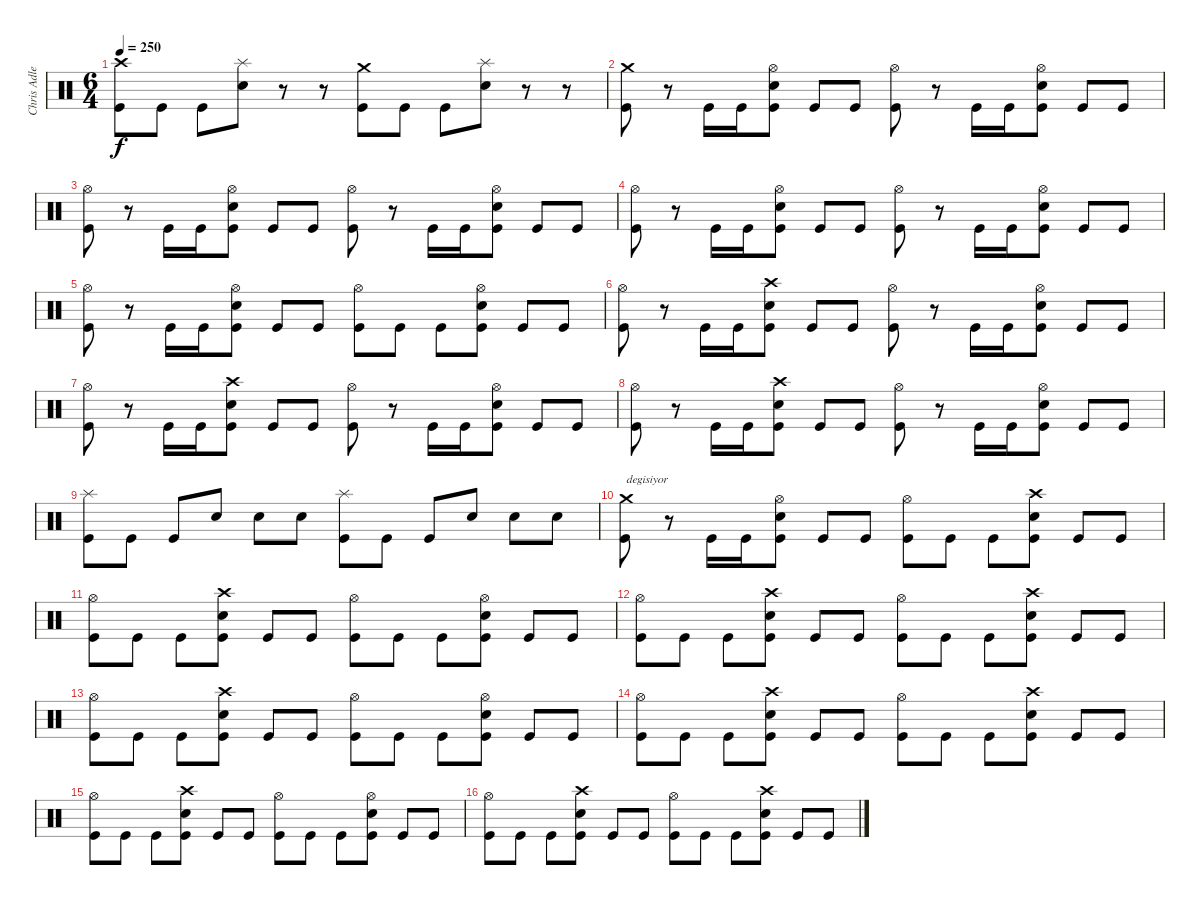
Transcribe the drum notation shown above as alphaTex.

\track ("Chris Adler" "Chris Adle") {instrument percussion}
\staff {score}
\articulation defaults
\ts (6 4)
\tempo 250
\clef neutral
\ks c
("Crash high (hit)" "Kick (hit)").8{dy f} "Kick (hit)".8 "Kick (hit)".8 ("Splash (hit)" "Electric Snare (hit)").8 r.8 r.8 ("Crash medium (hit)" "Kick (hit)").8 "Kick (hit)".8 "Kick (hit)".8 ("Splash (hit)" "Electric Snare (hit)").8 r.8 r.8 |
("Crash medium (hit)" "Kick (hit)").8 r.8 "Kick (hit)".16 "Kick (hit)".16 ("Hi-Hat (open)" "Electric Snare (hit)" "Kick (hit)").8 "Kick (hit)".8 "Kick (hit)".8 ("Hi-Hat (open)" "Kick (hit)").8 r.8 "Kick (hit)".16 "Kick (hit)".16 ("Hi-Hat (open)" "Electric Snare (hit)" "Kick (hit)").8 "Kick (hit)".8 "Kick (hit)".8 |
("Hi-Hat (open)" "Kick (hit)").8 r.8 "Kick (hit)".16 "Kick (hit)".16 ("Hi-Hat (open)" "Electric Snare (hit)" "Kick (hit)").8 "Kick (hit)".8 "Kick (hit)".8 ("Hi-Hat (open)" "Kick (hit)").8 r.8 "Kick (hit)".16 "Kick (hit)".16 ("Hi-Hat (open)" "Electric Snare (hit)" "Kick (hit)").8 "Kick (hit)".8 "Kick (hit)".8 |
("Hi-Hat (open)" "Kick (hit)").8 r.8 "Kick (hit)".16 "Kick (hit)".16 ("Hi-Hat (open)" "Electric Snare (hit)" "Kick (hit)").8 "Kick (hit)".8 "Kick (hit)".8 ("Hi-Hat (open)" "Kick (hit)").8 r.8 "Kick (hit)".16 "Kick (hit)".16 ("Hi-Hat (open)" "Electric Snare (hit)" "Kick (hit)").8 "Kick (hit)".8 "Kick (hit)".8 |
("Hi-Hat (open)" "Kick (hit)").8 r.8 "Kick (hit)".16 "Kick (hit)".16 ("Hi-Hat (open)" "Electric Snare (hit)" "Kick (hit)").8 "Kick (hit)".8 "Kick (hit)".8 ("Hi-Hat (open)" "Kick (hit)").8 "Kick (hit)".8 "Kick (hit)".8 ("Hi-Hat (open)" "Electric Snare (hit)" "Kick (hit)").8 "Kick (hit)".8 "Kick (hit)".8 |
("Hi-Hat (open)" "Kick (hit)").8 r.8 "Kick (hit)".16 "Kick (hit)".16 ("Crash high (hit)" "Electric Snare (hit)" "Kick (hit)").8 "Kick (hit)".8 "Kick (hit)".8 ("Hi-Hat (open)" "Kick (hit)").8 r.8 "Kick (hit)".16 "Kick (hit)".16 ("Hi-Hat (open)" "Electric Snare (hit)" "Kick (hit)").8 "Kick (hit)".8 "Kick (hit)".8 |
("Hi-Hat (open)" "Kick (hit)").8 r.8 "Kick (hit)".16 "Kick (hit)".16 ("Crash high (hit)" "Electric Snare (hit)" "Kick (hit)").8 "Kick (hit)".8 "Kick (hit)".8 ("Hi-Hat (open)" "Kick (hit)").8 r.8 "Kick (hit)".16 "Kick (hit)".16 ("Hi-Hat (open)" "Electric Snare (hit)" "Kick (hit)").8 "Kick (hit)".8 "Kick (hit)".8 |
("Hi-Hat (open)" "Kick (hit)").8 r.8 "Kick (hit)".16 "Kick (hit)".16 ("Crash high (hit)" "Electric Snare (hit)" "Kick (hit)").8 "Kick (hit)".8 "Kick (hit)".8 ("Hi-Hat (open)" "Kick (hit)").8 r.8 "Kick (hit)".16 "Kick (hit)".16 ("Hi-Hat (open)" "Electric Snare (hit)" "Kick (hit)").8 "Kick (hit)".8 "Kick (hit)".8 |
("Splash (hit)" "Kick (hit)").8 "Kick (hit)".8 "Kick (hit)".8 "Electric Snare (hit)".8 "Electric Snare (hit)".8 "Electric Snare (hit)".8 ("Splash (hit)" "Kick (hit)").8 "Kick (hit)".8 "Kick (hit)".8 "Electric Snare (hit)".8 "Electric Snare (hit)".8 "Electric Snare (hit)".8 |
("Crash medium (hit)" "Kick (hit)").8{txt "degisiyor"} r.8 "Kick (hit)".16 "Kick (hit)".16 ("Hi-Hat (open)" "Electric Snare (hit)" "Kick (hit)").8 "Kick (hit)".8 "Kick (hit)".8 ("Hi-Hat (open)" "Kick (hit)").8 "Kick (hit)".8 "Kick (hit)".8 ("Crash high (hit)" "Electric Snare (hit)" "Kick (hit)").8 "Kick (hit)".8 "Kick (hit)".8 |
("Hi-Hat (open)" "Kick (hit)").8 "Kick (hit)".8 "Kick (hit)".8 ("Crash high (hit)" "Electric Snare (hit)" "Kick (hit)").8 "Kick (hit)".8 "Kick (hit)".8 ("Hi-Hat (open)" "Kick (hit)").8 "Kick (hit)".8 "Kick (hit)".8 ("Hi-Hat (open)" "Electric Snare (hit)" "Kick (hit)").8 "Kick (hit)".8 "Kick (hit)".8 |
("Hi-Hat (open)" "Kick (hit)").8 "Kick (hit)".8 "Kick (hit)".8 ("Crash high (hit)" "Electric Snare (hit)" "Kick (hit)").8 "Kick (hit)".8 "Kick (hit)".8 ("Hi-Hat (open)" "Kick (hit)").8 "Kick (hit)".8 "Kick (hit)".8 ("Crash high (hit)" "Electric Snare (hit)" "Kick (hit)").8 "Kick (hit)".8 "Kick (hit)".8 |
("Hi-Hat (open)" "Kick (hit)").8 "Kick (hit)".8 "Kick (hit)".8 ("Crash high (hit)" "Electric Snare (hit)" "Kick (hit)").8 "Kick (hit)".8 "Kick (hit)".8 ("Hi-Hat (open)" "Kick (hit)").8 "Kick (hit)".8 "Kick (hit)".8 ("Hi-Hat (open)" "Electric Snare (hit)" "Kick (hit)").8 "Kick (hit)".8 "Kick (hit)".8 |
("Hi-Hat (open)" "Kick (hit)").8 "Kick (hit)".8 "Kick (hit)".8 ("Crash high (hit)" "Electric Snare (hit)" "Kick (hit)").8 "Kick (hit)".8 "Kick (hit)".8 ("Hi-Hat (open)" "Kick (hit)").8 "Kick (hit)".8 "Kick (hit)".8 ("Crash high (hit)" "Electric Snare (hit)" "Kick (hit)").8 "Kick (hit)".8 "Kick (hit)".8 |
("Hi-Hat (open)" "Kick (hit)").8 "Kick (hit)".8 "Kick (hit)".8 ("Crash high (hit)" "Electric Snare (hit)" "Kick (hit)").8 "Kick (hit)".8 "Kick (hit)".8 ("Hi-Hat (open)" "Kick (hit)").8 "Kick (hit)".8 "Kick (hit)".8 ("Hi-Hat (open)" "Electric Snare (hit)" "Kick (hit)").8 "Kick (hit)".8 "Kick (hit)".8 |
("Hi-Hat (open)" "Kick (hit)").8 "Kick (hit)".8 "Kick (hit)".8 ("Crash high (hit)" "Electric Snare (hit)" "Kick (hit)").8 "Kick (hit)".8 "Kick (hit)".8 ("Hi-Hat (open)" "Kick (hit)").8 "Kick (hit)".8 "Kick (hit)".8 ("Crash high (hit)" "Electric Snare (hit)" "Kick (hit)").8 "Kick (hit)".8 "Kick (hit)".8
